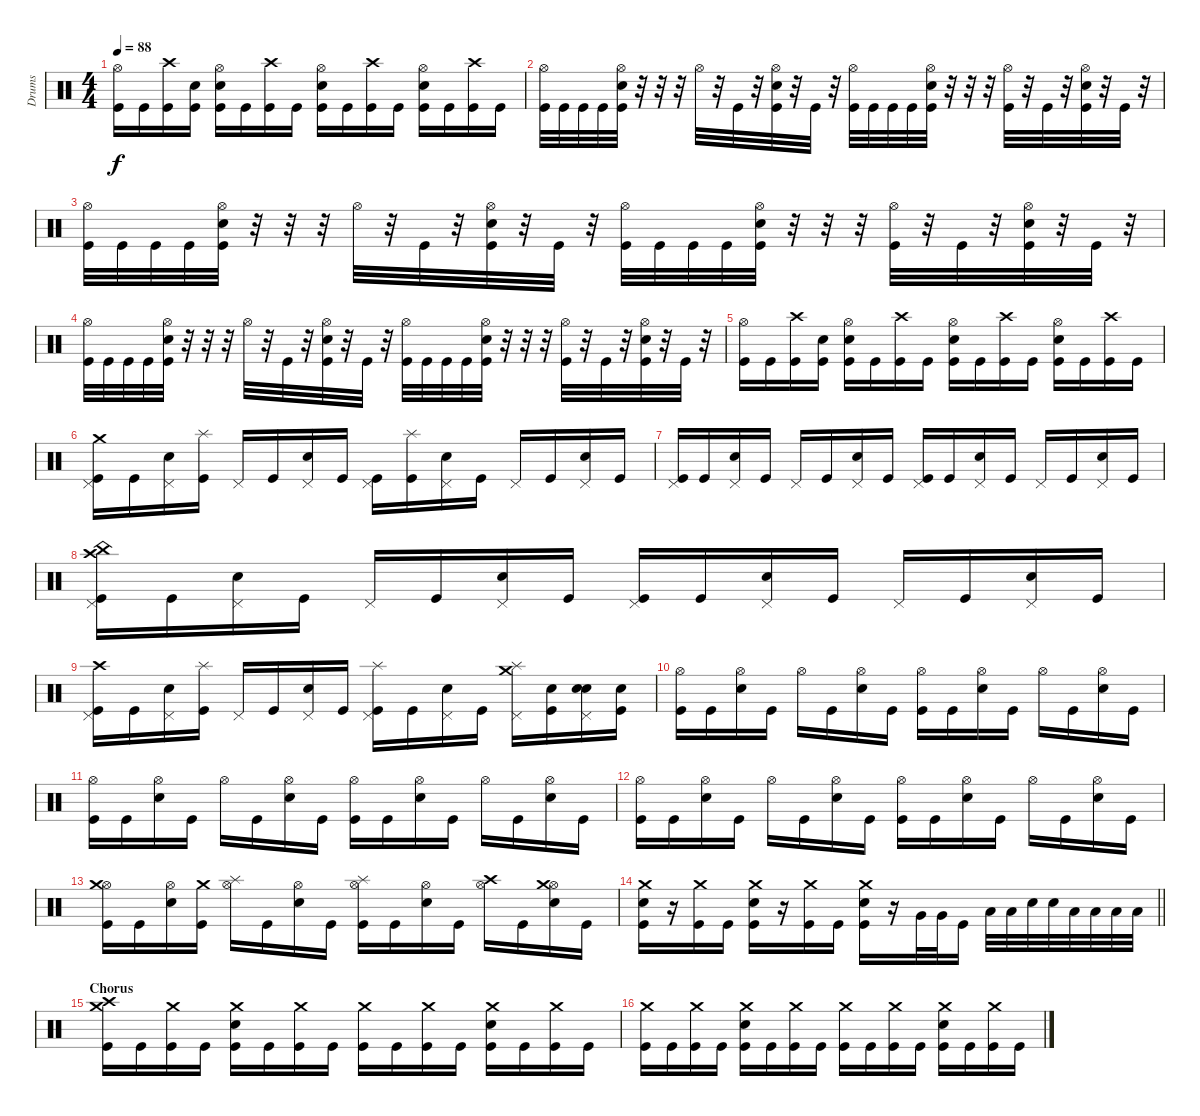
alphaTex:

\track ("Drums" "Drums") {instrument percussion}
\staff {score}
\articulation defaults
\ts (4 4)
\tempo 88
\clef neutral
\ks c
("Hi-Hat (open)" "Kick (hit)").16{dy f} "Kick (hit)".16 ("Crash high (hit)" "Kick (hit)").16 ("Electric Snare (hit)" "Kick (hit)").16 ("Hi-Hat (open)" "Electric Snare (hit)" "Kick (hit)").16 "Kick (hit)".16 ("Crash high (hit)" "Kick (hit)").16 "Kick (hit)".16 ("Hi-Hat (open)" "Electric Snare (hit)" "Kick (hit)").16 "Kick (hit)".16 ("Crash high (hit)" "Kick (hit)").16 "Kick (hit)".16 ("Hi-Hat (open)" "Electric Snare (hit)" "Kick (hit)").16 "Kick (hit)".16 ("Crash high (hit)" "Kick (hit)").16 "Kick (hit)".16 |
("Hi-Hat (open)" "Kick (hit)").32 "Kick (hit)".32 "Kick (hit)".32 "Kick (hit)".32 ("Hi-Hat (open)" "Electric Snare (hit)" "Kick (hit)").32 r.32 r.32 r.32 "Hi-Hat (open)".32 r.32 "Kick (hit)".32 r.32 ("Hi-Hat (open)" "Electric Snare (hit)" "Kick (hit)").32 r.32 "Kick (hit)".32 r.32 ("Hi-Hat (open)" "Kick (hit)").32 "Kick (hit)".32 "Kick (hit)".32 "Kick (hit)".32 ("Hi-Hat (open)" "Electric Snare (hit)" "Kick (hit)").32 r.32 r.32 r.32 ("Hi-Hat (open)" "Kick (hit)").32 r.32 "Kick (hit)".32 r.32 ("Hi-Hat (open)" "Electric Snare (hit)" "Kick (hit)").32 r.32 "Kick (hit)".32 r.32 |
("Hi-Hat (open)" "Kick (hit)").32 "Kick (hit)".32 "Kick (hit)".32 "Kick (hit)".32 ("Hi-Hat (open)" "Electric Snare (hit)" "Kick (hit)").32 r.32 r.32 r.32 "Hi-Hat (open)".32 r.32 "Kick (hit)".32 r.32 ("Hi-Hat (open)" "Electric Snare (hit)" "Kick (hit)").32 r.32 "Kick (hit)".32 r.32 ("Hi-Hat (open)" "Kick (hit)").32 "Kick (hit)".32 "Kick (hit)".32 "Kick (hit)".32 ("Hi-Hat (open)" "Electric Snare (hit)" "Kick (hit)").32 r.32 r.32 r.32 ("Hi-Hat (open)" "Kick (hit)").32 r.32 "Kick (hit)".32 r.32 ("Hi-Hat (open)" "Electric Snare (hit)" "Kick (hit)").32 r.32 "Kick (hit)".32 r.32 |
("Hi-Hat (open)" "Kick (hit)").32 "Kick (hit)".32 "Kick (hit)".32 "Kick (hit)".32 ("Hi-Hat (open)" "Electric Snare (hit)" "Kick (hit)").32 r.32 r.32 r.32 "Hi-Hat (open)".32 r.32 "Kick (hit)".32 r.32 ("Hi-Hat (open)" "Electric Snare (hit)" "Kick (hit)").32 r.32 "Kick (hit)".32 r.32 ("Hi-Hat (open)" "Kick (hit)").32 "Kick (hit)".32 "Kick (hit)".32 "Kick (hit)".32 ("Hi-Hat (open)" "Electric Snare (hit)" "Kick (hit)").32 r.32 r.32 r.32 ("Hi-Hat (open)" "Kick (hit)").32 r.32 "Kick (hit)".32 r.32 ("Hi-Hat (open)" "Electric Snare (hit)" "Kick (hit)").32 r.32 "Kick (hit)".32 r.32 |
("Hi-Hat (open)" "Kick (hit)").16 "Kick (hit)".16 ("Crash high (hit)" "Kick (hit)").16 ("Electric Snare (hit)" "Kick (hit)").16 ("Hi-Hat (open)" "Electric Snare (hit)" "Kick (hit)").16 "Kick (hit)".16 ("Crash high (hit)" "Kick (hit)").16 "Kick (hit)".16 ("Hi-Hat (open)" "Electric Snare (hit)" "Kick (hit)").16 "Kick (hit)".16 ("Crash high (hit)" "Kick (hit)").16 "Kick (hit)".16 ("Hi-Hat (open)" "Electric Snare (hit)" "Kick (hit)").16 "Kick (hit)".16 ("Crash high (hit)" "Kick (hit)").16 "Kick (hit)".16 |
("Pedal Hi-Hat (hit)" "Crash medium (hit)" "Kick (hit)").16 "Kick (hit)".16 ("Pedal Hi-Hat (hit)" "Electric Snare (hit)").16 ("Splash (hit)" "Kick (hit)").16 "Pedal Hi-Hat (hit)".16 "Kick (hit)".16 ("Pedal Hi-Hat (hit)" "Electric Snare (hit)").16 "Kick (hit)".16 ("Pedal Hi-Hat (hit)" "Kick (hit)").16 ("Splash (hit)" "Kick (hit)").16 ("Pedal Hi-Hat (hit)" "Electric Snare (hit)").16 "Kick (hit)".16 "Pedal Hi-Hat (hit)".16 "Kick (hit)".16 ("Pedal Hi-Hat (hit)" "Electric Snare (hit)").16 "Kick (hit)".16 |
("Pedal Hi-Hat (hit)" "Kick (hit)").16 "Kick (hit)".16 ("Pedal Hi-Hat (hit)" "Electric Snare (hit)").16 "Kick (hit)".16 "Pedal Hi-Hat (hit)".16 "Kick (hit)".16 ("Pedal Hi-Hat (hit)" "Electric Snare (hit)").16 "Kick (hit)".16 ("Pedal Hi-Hat (hit)" "Kick (hit)").16 "Kick (hit)".16 ("Pedal Hi-Hat (hit)" "Electric Snare (hit)").16 "Kick (hit)".16 "Pedal Hi-Hat (hit)".16 "Kick (hit)".16 ("Pedal Hi-Hat (hit)" "Electric Snare (hit)").16 "Kick (hit)".16 |
("Pedal Hi-Hat (hit)" "Crash high (hit)" "China (hit)" "Kick (hit)").16 "Kick (hit)".16 ("Pedal Hi-Hat (hit)" "Electric Snare (hit)").16 "Kick (hit)".16 "Pedal Hi-Hat (hit)".16 "Kick (hit)".16 ("Pedal Hi-Hat (hit)" "Electric Snare (hit)").16 "Kick (hit)".16 ("Pedal Hi-Hat (hit)" "Kick (hit)").16 "Kick (hit)".16 ("Pedal Hi-Hat (hit)" "Electric Snare (hit)").16 "Kick (hit)".16 "Pedal Hi-Hat (hit)".16 "Kick (hit)".16 ("Pedal Hi-Hat (hit)" "Electric Snare (hit)").16 "Kick (hit)".16 |
("Pedal Hi-Hat (hit)" "Crash high (hit)" "Kick (hit)").16 "Kick (hit)".16 ("Pedal Hi-Hat (hit)" "Electric Snare (hit)").16 ("Splash (hit)" "Kick (hit)").16 "Pedal Hi-Hat (hit)".16 "Kick (hit)".16 ("Pedal Hi-Hat (hit)" "Electric Snare (hit)").16 "Kick (hit)".16 ("Pedal Hi-Hat (hit)" "Splash (hit)" "Kick (hit)").16 "Kick (hit)".16 ("Pedal Hi-Hat (hit)" "Electric Snare (hit)").16 "Kick (hit)".16 ("Pedal Hi-Hat (hit)" "Splash (hit)" "Crash medium (hit)").16 ("Electric Snare (hit)" "Kick (hit)").16 ("Pedal Hi-Hat (hit)" "Electric Snare (hit)" "Electric Snare (hit)").16 ("Electric Snare (hit)" "Kick (hit)").16 |
("Hi-Hat (open)" "Kick (hit)").16 "Kick (hit)".16 ("Hi-Hat (open)" "Electric Snare (hit)").16 "Kick (hit)".16 "Hi-Hat (open)".16 "Kick (hit)".16 ("Hi-Hat (open)" "Electric Snare (hit)").16 "Kick (hit)".16 ("Hi-Hat (open)" "Kick (hit)").16 "Kick (hit)".16 ("Hi-Hat (open)" "Electric Snare (hit)").16 "Kick (hit)".16 "Hi-Hat (open)".16 "Kick (hit)".16 ("Hi-Hat (open)" "Electric Snare (hit)").16 "Kick (hit)".16 |
("Hi-Hat (open)" "Kick (hit)").16 "Kick (hit)".16 ("Hi-Hat (open)" "Electric Snare (hit)").16 "Kick (hit)".16 "Hi-Hat (open)".16 "Kick (hit)".16 ("Hi-Hat (open)" "Electric Snare (hit)").16 "Kick (hit)".16 ("Hi-Hat (open)" "Kick (hit)").16 "Kick (hit)".16 ("Hi-Hat (open)" "Electric Snare (hit)").16 "Kick (hit)".16 "Hi-Hat (open)".16 "Kick (hit)".16 ("Hi-Hat (open)" "Electric Snare (hit)").16 "Kick (hit)".16 |
("Hi-Hat (open)" "Kick (hit)").16 "Kick (hit)".16 ("Hi-Hat (open)" "Electric Snare (hit)").16 "Kick (hit)".16 "Hi-Hat (open)".16 "Kick (hit)".16 ("Hi-Hat (open)" "Electric Snare (hit)").16 "Kick (hit)".16 ("Hi-Hat (open)" "Kick (hit)").16 "Kick (hit)".16 ("Hi-Hat (open)" "Electric Snare (hit)").16 "Kick (hit)".16 "Hi-Hat (open)".16 "Kick (hit)".16 ("Hi-Hat (open)" "Electric Snare (hit)").16 "Kick (hit)".16 |
("Hi-Hat (open)" "Crash medium (hit)" "Kick (hit)").16 "Kick (hit)".16 ("Hi-Hat (open)" "Electric Snare (hit)").16 ("Crash medium (hit)" "Kick (hit)").16 ("Hi-Hat (open)" "Splash (hit)").16 "Kick (hit)".16 ("Hi-Hat (open)" "Electric Snare (hit)").16 "Kick (hit)".16 ("Hi-Hat (open)" "Splash (hit)" "Kick (hit)").16 "Kick (hit)".16 ("Hi-Hat (open)" "Electric Snare (hit)").16 "Kick (hit)".16 ("Hi-Hat (open)" "Crash high (hit)").16 "Kick (hit)".16 ("Hi-Hat (open)" "Crash medium (hit)" "Electric Snare (hit)").16 "Kick (hit)".16 |
\barLineRight lightlight
("Crash medium (hit)" "Electric Snare (hit)" "Kick (hit)").16 r.16 ("Crash medium (hit)" "Kick (hit)").16 "Kick (hit)".16 ("Crash medium (hit)" "Electric Snare (hit)" "Kick (hit)").16 r.16 ("Crash medium (hit)" "Kick (hit)").16 "Kick (hit)".16 ("Crash medium (hit)" "Electric Snare (hit)" "Kick (hit)").16 r.16 "Very Low Tom (hit)".32 "Very Low Tom (hit)".32 "Kick (hit)".16 "Low Tom (hit)".32 "Low Tom (hit)".32 "Electric Snare (hit)".32 "Electric Snare (hit)".32 "Low Floor Tom (hit)".32 "Low Floor Tom (hit)".32 "Low Floor Tom (hit)".32 "Low Floor Tom (hit)".32 |
\section ("" "Chorus")
("Crash medium (hit)" "Crash high (hit)" "Kick (hit)").16 "Kick (hit)".16 ("Crash medium (hit)" "Kick (hit)").16 "Kick (hit)".16 ("Crash medium (hit)" "Electric Snare (hit)" "Kick (hit)").16 "Kick (hit)".16 ("Crash medium (hit)" "Kick (hit)").16 "Kick (hit)".16 ("Crash medium (hit)" "Kick (hit)").16 "Kick (hit)".16 ("Crash medium (hit)" "Kick (hit)").16 "Kick (hit)".16 ("Crash medium (hit)" "Electric Snare (hit)" "Kick (hit)").16 "Kick (hit)".16 ("Crash medium (hit)" "Kick (hit)").16 "Kick (hit)".16 |
("Crash medium (hit)" "Kick (hit)").16 "Kick (hit)".16 ("Crash medium (hit)" "Kick (hit)").16 "Kick (hit)".16 ("Crash medium (hit)" "Electric Snare (hit)" "Kick (hit)").16 "Kick (hit)".16 ("Crash medium (hit)" "Kick (hit)").16 "Kick (hit)".16 ("Crash medium (hit)" "Kick (hit)").16 "Kick (hit)".16 ("Crash medium (hit)" "Kick (hit)").16 "Kick (hit)".16 ("Crash medium (hit)" "Electric Snare (hit)" "Kick (hit)").16 "Kick (hit)".16 ("Crash medium (hit)" "Kick (hit)").16 "Kick (hit)".16
